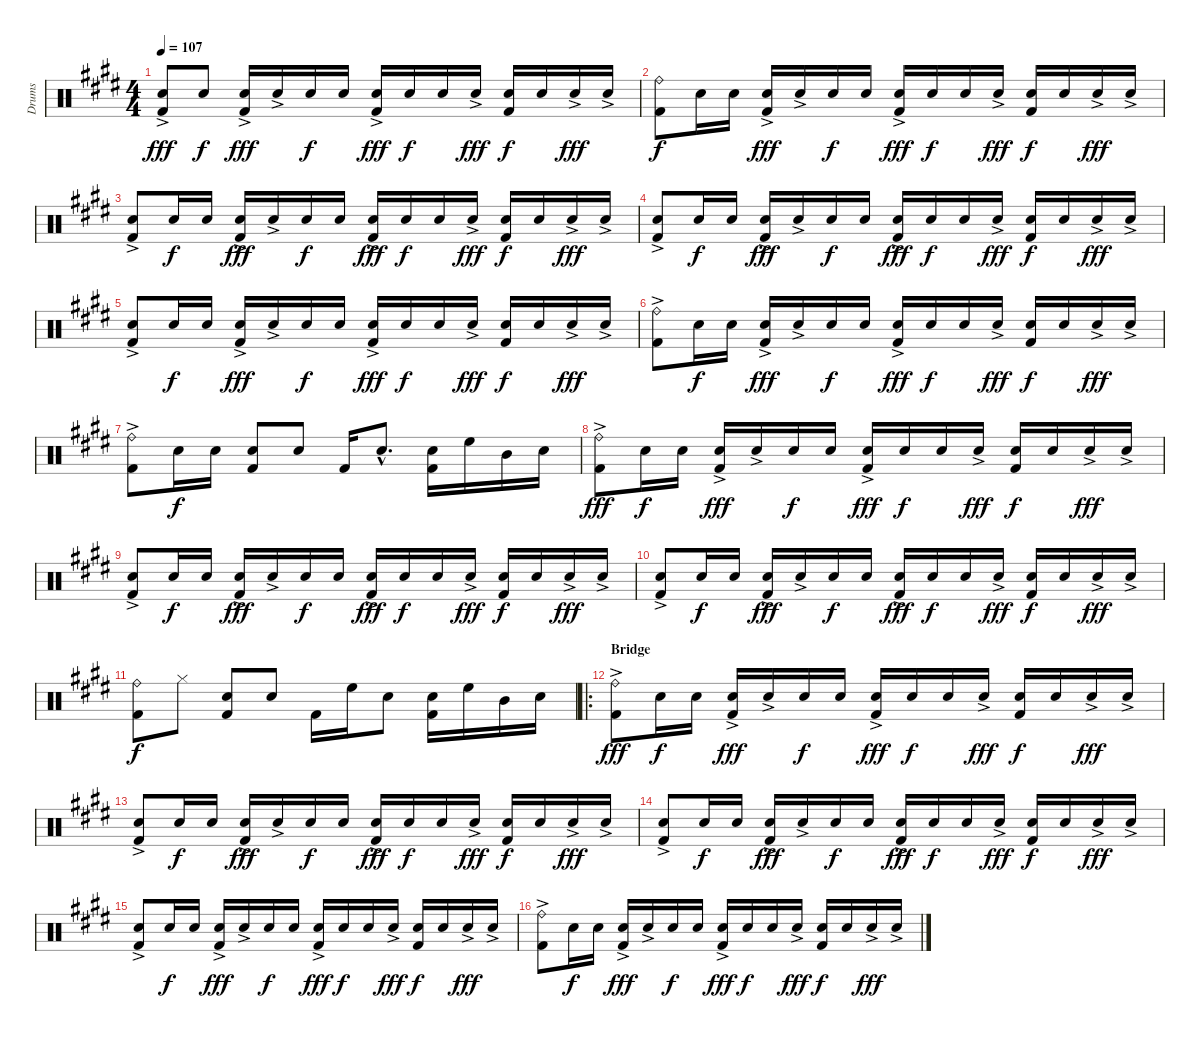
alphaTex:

\track ("Drums" "Drums") {instrument percussion}
\staff {score}
\articulation defaults
\ts (4 4)
\tempo 107
\clef neutral
\ks c#minor
("Electric Snare (hit)"{ac} "Kick (hit) 2").8{dy fff} "Electric Snare (hit)".8{dy f} ("Electric Snare (hit)"{ac} "Kick (hit) 2").16{dy fff} "Electric Snare (hit)"{ac}.16 "Electric Snare (hit)".16{dy f} "Electric Snare (hit)".16 ("Electric Snare (hit)"{ac} "Kick (hit) 2").16{dy fff} "Electric Snare (hit)".16{dy f} "Electric Snare (hit)".16 "Electric Snare (hit)"{ac}.16{dy fff} ("Electric Snare (hit)" "Kick (hit) 2").16{dy f} "Electric Snare (hit)".16 "Electric Snare (hit)"{ac}.16{dy fff} "Electric Snare (hit)"{ac}.16 |
("Ride (bell)" "Kick (hit) 2").8{dy f} "Electric Snare (hit)".16 "Electric Snare (hit)".16 ("Electric Snare (hit)"{ac} "Kick (hit) 2").16{dy fff} "Electric Snare (hit)"{ac}.16 "Electric Snare (hit)".16{dy f} "Electric Snare (hit)".16 ("Electric Snare (hit)"{ac} "Kick (hit) 2").16{dy fff} "Electric Snare (hit)".16{dy f} "Electric Snare (hit)".16 "Electric Snare (hit)"{ac}.16{dy fff} ("Electric Snare (hit)" "Kick (hit) 2").16{dy f} "Electric Snare (hit)".16 "Electric Snare (hit)"{ac}.16{dy fff} "Electric Snare (hit)"{ac}.16 |
("Electric Snare (hit)"{ac} "Kick (hit) 2").8 "Electric Snare (hit)".16{dy f} "Electric Snare (hit)".16 ("Electric Snare (hit)"{ac} "Kick (hit) 2").16{dy fff} "Electric Snare (hit)"{ac}.16 "Electric Snare (hit)".16{dy f} "Electric Snare (hit)".16 ("Electric Snare (hit)"{ac} "Kick (hit) 2").16{dy fff} "Electric Snare (hit)".16{dy f} "Electric Snare (hit)".16 "Electric Snare (hit)"{ac}.16{dy fff} ("Electric Snare (hit)" "Kick (hit) 2").16{dy f} "Electric Snare (hit)".16 "Electric Snare (hit)"{ac}.16{dy fff} "Electric Snare (hit)"{ac}.16 |
("Electric Snare (hit)"{ac} "Kick (hit) 2").8 "Electric Snare (hit)".16{dy f} "Electric Snare (hit)".16 ("Electric Snare (hit)"{ac} "Kick (hit) 2").16{dy fff} "Electric Snare (hit)"{ac}.16 "Electric Snare (hit)".16{dy f} "Electric Snare (hit)".16 ("Electric Snare (hit)"{ac} "Kick (hit) 2").16{dy fff} "Electric Snare (hit)".16{dy f} "Electric Snare (hit)".16 "Electric Snare (hit)"{ac}.16{dy fff} ("Electric Snare (hit)" "Kick (hit) 2").16{dy f} "Electric Snare (hit)".16 "Electric Snare (hit)"{ac}.16{dy fff} "Electric Snare (hit)"{ac}.16 |
("Electric Snare (hit)"{ac} "Kick (hit) 2").8 "Electric Snare (hit)".16{dy f} "Electric Snare (hit)".16 ("Electric Snare (hit)"{ac} "Kick (hit) 2").16{dy fff} "Electric Snare (hit)"{ac}.16 "Electric Snare (hit)".16{dy f} "Electric Snare (hit)".16 ("Electric Snare (hit)"{ac} "Kick (hit) 2").16{dy fff} "Electric Snare (hit)".16{dy f} "Electric Snare (hit)".16 "Electric Snare (hit)"{ac}.16{dy fff} ("Electric Snare (hit)" "Kick (hit) 2").16{dy f} "Electric Snare (hit)".16 "Electric Snare (hit)"{ac}.16{dy fff} "Electric Snare (hit)"{ac}.16 |
("Ride (bell)"{ac} "Kick (hit) 2").8 "Electric Snare (hit)".16{dy f} "Electric Snare (hit)".16 ("Electric Snare (hit)"{ac} "Kick (hit) 2").16{dy fff} "Electric Snare (hit)"{ac}.16 "Electric Snare (hit)".16{dy f} "Electric Snare (hit)".16 ("Electric Snare (hit)"{ac} "Kick (hit) 2").16{dy fff} "Electric Snare (hit)".16{dy f} "Electric Snare (hit)".16 "Electric Snare (hit)"{ac}.16{dy fff} ("Electric Snare (hit)" "Kick (hit) 2").16{dy f} "Electric Snare (hit)".16 "Electric Snare (hit)"{ac}.16{dy fff} "Electric Snare (hit)"{ac}.16 |
("Ride (bell)"{ac} "Kick (hit) 2").8 "Electric Snare (hit)".16{dy f} "Electric Snare (hit)".16 ("Electric Snare (hit)" "Kick (hit) 2").8 "Electric Snare (hit)".8 "Kick (hit) 2".16 "Electric Snare (hit)"{hac}.8{d} ("Electric Snare (hit)" "Kick (hit) 2").16 "High Floor Tom (hit)".16 "Mid Tom (hit)".16 "Snare (hit) 2".16 |
("Ride (bell)"{ac} "Kick (hit) 2").8{dy fff} "Electric Snare (hit)".16{dy f} "Electric Snare (hit)".16 ("Electric Snare (hit)"{ac} "Kick (hit) 2").16{dy fff} "Electric Snare (hit)"{ac}.16 "Electric Snare (hit)".16{dy f} "Electric Snare (hit)".16 ("Electric Snare (hit)"{ac} "Kick (hit) 2").16{dy fff} "Electric Snare (hit)".16{dy f} "Electric Snare (hit)".16 "Electric Snare (hit)"{ac}.16{dy fff} ("Electric Snare (hit)" "Kick (hit) 2").16{dy f} "Electric Snare (hit)".16 "Electric Snare (hit)"{ac}.16{dy fff} "Electric Snare (hit)"{ac}.16 |
("Electric Snare (hit)"{ac} "Kick (hit) 2").8 "Electric Snare (hit)".16{dy f} "Electric Snare (hit)".16 ("Electric Snare (hit)"{ac} "Kick (hit) 2").16{dy fff} "Electric Snare (hit)"{ac}.16 "Electric Snare (hit)".16{dy f} "Electric Snare (hit)".16 ("Electric Snare (hit)"{ac} "Kick (hit) 2").16{dy fff} "Electric Snare (hit)".16{dy f} "Electric Snare (hit)".16 "Electric Snare (hit)"{ac}.16{dy fff} ("Electric Snare (hit)" "Kick (hit) 2").16{dy f} "Electric Snare (hit)".16 "Electric Snare (hit)"{ac}.16{dy fff} "Electric Snare (hit)"{ac}.16 |
("Electric Snare (hit)"{ac} "Kick (hit) 2").8 "Electric Snare (hit)".16{dy f} "Electric Snare (hit)".16 ("Electric Snare (hit)"{ac} "Kick (hit) 2").16{dy fff} "Electric Snare (hit)"{ac}.16 "Electric Snare (hit)".16{dy f} "Electric Snare (hit)".16 ("Electric Snare (hit)"{ac} "Kick (hit) 2").16{dy fff} "Electric Snare (hit)".16{dy f} "Electric Snare (hit)".16 "Electric Snare (hit)"{ac}.16{dy fff} ("Electric Snare (hit)" "Kick (hit) 2").16{dy f} "Electric Snare (hit)".16 "Electric Snare (hit)"{ac}.16{dy fff} "Electric Snare (hit)"{ac}.16 |
("Ride (bell)" "Kick (hit) 2").8{dy f} "Hi-Hat (closed)".8 ("Electric Snare (hit)" "Kick (hit) 2").8 "Electric Snare (hit)".8 "Kick (hit) 2".16 "High Floor Tom (hit)".16 "Electric Snare (hit)".8 ("Electric Snare (hit)" "Kick (hit) 2").16 "High Floor Tom (hit)".16 "Mid Tom (hit)".16 "Snare (hit) 2".16 |
\ro
\section ("" "Bridge")
("Ride (bell)"{ac} "Kick (hit) 2").8{dy fff} "Electric Snare (hit)".16{dy f} "Electric Snare (hit)".16 ("Electric Snare (hit)"{ac} "Kick (hit) 2").16{dy fff} "Electric Snare (hit)"{ac}.16 "Electric Snare (hit)".16{dy f} "Electric Snare (hit)".16 ("Electric Snare (hit)"{ac} "Kick (hit) 2").16{dy fff} "Electric Snare (hit)".16{dy f} "Electric Snare (hit)".16 "Electric Snare (hit)"{ac}.16{dy fff} ("Electric Snare (hit)" "Kick (hit) 2").16{dy f} "Electric Snare (hit)".16 "Electric Snare (hit)"{ac}.16{dy fff} "Electric Snare (hit)"{ac}.16 |
("Electric Snare (hit)"{ac} "Kick (hit) 2").8 "Electric Snare (hit)".16{dy f} "Electric Snare (hit)".16 ("Electric Snare (hit)"{ac} "Kick (hit) 2").16{dy fff} "Electric Snare (hit)"{ac}.16 "Electric Snare (hit)".16{dy f} "Electric Snare (hit)".16 ("Electric Snare (hit)"{ac} "Kick (hit) 2").16{dy fff} "Electric Snare (hit)".16{dy f} "Electric Snare (hit)".16 "Electric Snare (hit)"{ac}.16{dy fff} ("Electric Snare (hit)" "Kick (hit) 2").16{dy f} "Electric Snare (hit)".16 "Electric Snare (hit)"{ac}.16{dy fff} "Electric Snare (hit)"{ac}.16 |
("Electric Snare (hit)"{ac} "Kick (hit) 2").8 "Electric Snare (hit)".16{dy f} "Electric Snare (hit)".16 ("Electric Snare (hit)"{ac} "Kick (hit) 2").16{dy fff} "Electric Snare (hit)"{ac}.16 "Electric Snare (hit)".16{dy f} "Electric Snare (hit)".16 ("Electric Snare (hit)"{ac} "Kick (hit) 2").16{dy fff} "Electric Snare (hit)".16{dy f} "Electric Snare (hit)".16 "Electric Snare (hit)"{ac}.16{dy fff} ("Electric Snare (hit)" "Kick (hit) 2").16{dy f} "Electric Snare (hit)".16 "Electric Snare (hit)"{ac}.16{dy fff} "Electric Snare (hit)"{ac}.16 |
("Electric Snare (hit)"{ac} "Kick (hit) 2").8 "Electric Snare (hit)".16{dy f} "Electric Snare (hit)".16 ("Electric Snare (hit)"{ac} "Kick (hit) 2").16{dy fff} "Electric Snare (hit)"{ac}.16 "Electric Snare (hit)".16{dy f} "Electric Snare (hit)".16 ("Electric Snare (hit)"{ac} "Kick (hit) 2").16{dy fff} "Electric Snare (hit)".16{dy f} "Electric Snare (hit)".16 "Electric Snare (hit)"{ac}.16{dy fff} ("Electric Snare (hit)" "Kick (hit) 2").16{dy f} "Electric Snare (hit)".16 "Electric Snare (hit)"{ac}.16{dy fff} "Electric Snare (hit)"{ac}.16 |
("Ride (bell)"{ac} "Kick (hit) 2").8 "Electric Snare (hit)".16{dy f} "Electric Snare (hit)".16 ("Electric Snare (hit)"{ac} "Kick (hit) 2").16{dy fff} "Electric Snare (hit)"{ac}.16 "Electric Snare (hit)".16{dy f} "Electric Snare (hit)".16 ("Electric Snare (hit)"{ac} "Kick (hit) 2").16{dy fff} "Electric Snare (hit)".16{dy f} "Electric Snare (hit)".16 "Electric Snare (hit)"{ac}.16{dy fff} ("Electric Snare (hit)" "Kick (hit) 2").16{dy f} "Electric Snare (hit)".16 "Electric Snare (hit)"{ac}.16{dy fff} "Electric Snare (hit)"{ac}.16
